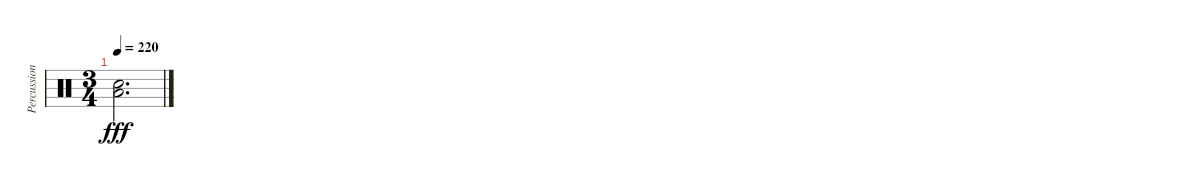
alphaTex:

\track ("Percussions" "Percussion") {instrument percussion}
\staff {score}
\articulation defaults
\ts (3 4)
\tempo 220
\clef neutral
\ks c
("Low Floor Tom (hit)" "Electric Snare (hit)").2{d dy fff}
